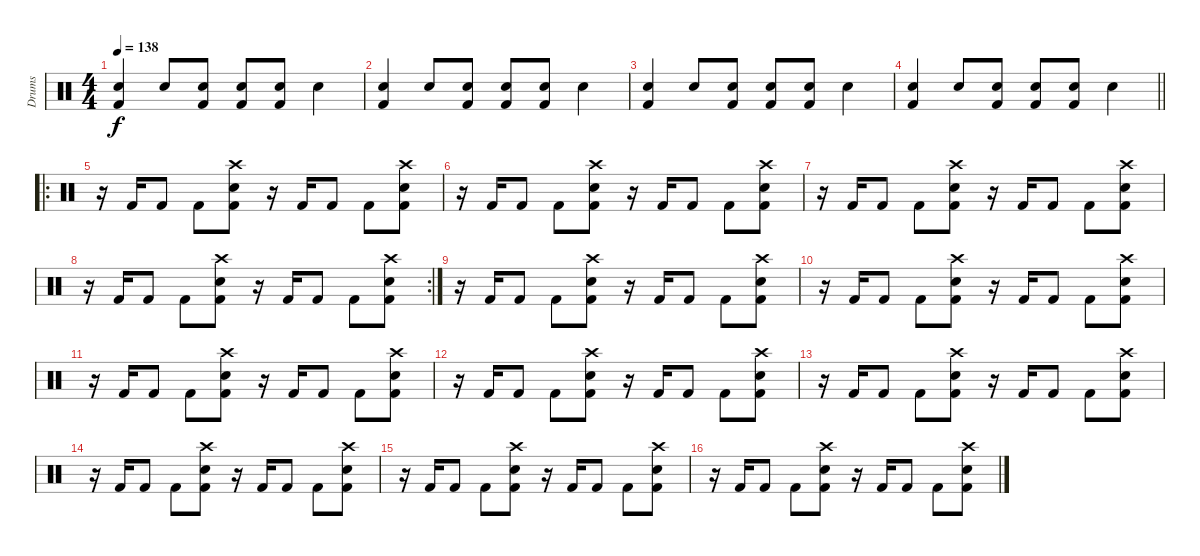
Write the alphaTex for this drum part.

\track ("Drums" "Drums") {instrument percussion}
\staff {score}
\articulation defaults
\ts (4 4)
\tempo 138
\clef neutral
\ks c
("Snare (hit) 2" "Kick (hit) 2").4{dy f} "Electric Snare (hit)".8 ("Snare (hit) 2" "Kick (hit) 2").8 ("Snare (hit) 2" "Kick (hit) 2").8 ("Snare (hit) 2" "Kick (hit) 2").8 "Electric Snare (hit)".4 |
("Snare (hit) 2" "Kick (hit) 2").4 "Electric Snare (hit)".8 ("Snare (hit) 2" "Kick (hit) 2").8 ("Snare (hit) 2" "Kick (hit) 2").8 ("Snare (hit) 2" "Kick (hit) 2").8 "Electric Snare (hit)".4 |
("Snare (hit) 2" "Kick (hit) 2").4 "Electric Snare (hit)".8 ("Snare (hit) 2" "Kick (hit) 2").8 ("Snare (hit) 2" "Kick (hit) 2").8 ("Snare (hit) 2" "Kick (hit) 2").8 "Electric Snare (hit)".4 |
\barLineRight lightlight
("Snare (hit) 2" "Kick (hit) 2").4 "Electric Snare (hit)".8 ("Snare (hit) 2" "Kick (hit) 2").8 ("Snare (hit) 2" "Kick (hit) 2").8 ("Snare (hit) 2" "Kick (hit) 2").8 "Electric Snare (hit)".4 |
\ro
r.16 "Kick (hit) 2".16 "Kick (hit) 2".8 "Kick (hit) 2".8 ("Crash high (hit)" "Snare (hit) 2" "Kick (hit) 2").8 r.16 "Kick (hit) 2".16 "Kick (hit) 2".8 "Kick (hit) 2".8 ("Crash high (hit)" "Snare (hit) 2" "Kick (hit) 2").8 |
r.16 "Kick (hit) 2".16 "Kick (hit) 2".8 "Kick (hit) 2".8 ("Crash high (hit)" "Snare (hit) 2" "Kick (hit) 2").8 r.16 "Kick (hit) 2".16 "Kick (hit) 2".8 "Kick (hit) 2".8 ("Crash high (hit)" "Snare (hit) 2" "Kick (hit) 2").8 |
r.16 "Kick (hit) 2".16 "Kick (hit) 2".8 "Kick (hit) 2".8 ("Crash high (hit)" "Snare (hit) 2" "Kick (hit) 2").8 r.16 "Kick (hit) 2".16 "Kick (hit) 2".8 "Kick (hit) 2".8 ("Crash high (hit)" "Snare (hit) 2" "Kick (hit) 2").8 |
\rc 2
r.16 "Kick (hit) 2".16 "Kick (hit) 2".8 "Kick (hit) 2".8 ("Crash high (hit)" "Snare (hit) 2" "Kick (hit) 2").8 r.16 "Kick (hit) 2".16 "Kick (hit) 2".8 "Kick (hit) 2".8 ("Crash high (hit)" "Snare (hit) 2" "Kick (hit) 2").8 |
r.16 "Kick (hit) 2".16 "Kick (hit) 2".8 "Kick (hit) 2".8 ("Crash high (hit)" "Snare (hit) 2" "Kick (hit) 2").8 r.16 "Kick (hit) 2".16 "Kick (hit) 2".8 "Kick (hit) 2".8 ("Crash high (hit)" "Snare (hit) 2" "Kick (hit) 2").8 |
r.16 "Kick (hit) 2".16 "Kick (hit) 2".8 "Kick (hit) 2".8 ("Crash high (hit)" "Snare (hit) 2" "Kick (hit) 2").8 r.16 "Kick (hit) 2".16 "Kick (hit) 2".8 "Kick (hit) 2".8 ("Crash high (hit)" "Snare (hit) 2" "Kick (hit) 2").8 |
r.16 "Kick (hit) 2".16 "Kick (hit) 2".8 "Kick (hit) 2".8 ("Crash high (hit)" "Snare (hit) 2" "Kick (hit) 2").8 r.16 "Kick (hit) 2".16 "Kick (hit) 2".8 "Kick (hit) 2".8 ("Crash high (hit)" "Snare (hit) 2" "Kick (hit) 2").8 |
r.16 "Kick (hit) 2".16 "Kick (hit) 2".8 "Kick (hit) 2".8 ("Crash high (hit)" "Snare (hit) 2" "Kick (hit) 2").8 r.16 "Kick (hit) 2".16 "Kick (hit) 2".8 "Kick (hit) 2".8 ("Crash high (hit)" "Snare (hit) 2" "Kick (hit) 2").8 |
r.16 "Kick (hit) 2".16 "Kick (hit) 2".8 "Kick (hit) 2".8 ("Crash high (hit)" "Snare (hit) 2" "Kick (hit) 2").8 r.16 "Kick (hit) 2".16 "Kick (hit) 2".8 "Kick (hit) 2".8 ("Crash high (hit)" "Snare (hit) 2" "Kick (hit) 2").8 |
r.16 "Kick (hit) 2".16 "Kick (hit) 2".8 "Kick (hit) 2".8 ("Crash high (hit)" "Snare (hit) 2" "Kick (hit) 2").8 r.16 "Kick (hit) 2".16 "Kick (hit) 2".8 "Kick (hit) 2".8 ("Crash high (hit)" "Snare (hit) 2" "Kick (hit) 2").8 |
r.16 "Kick (hit) 2".16 "Kick (hit) 2".8 "Kick (hit) 2".8 ("Crash high (hit)" "Snare (hit) 2" "Kick (hit) 2").8 r.16 "Kick (hit) 2".16 "Kick (hit) 2".8 "Kick (hit) 2".8 ("Crash high (hit)" "Snare (hit) 2" "Kick (hit) 2").8 |
r.16 "Kick (hit) 2".16 "Kick (hit) 2".8 "Kick (hit) 2".8 ("Crash high (hit)" "Snare (hit) 2" "Kick (hit) 2").8 r.16 "Kick (hit) 2".16 "Kick (hit) 2".8 "Kick (hit) 2".8 ("Crash high (hit)" "Snare (hit) 2" "Kick (hit) 2").8
